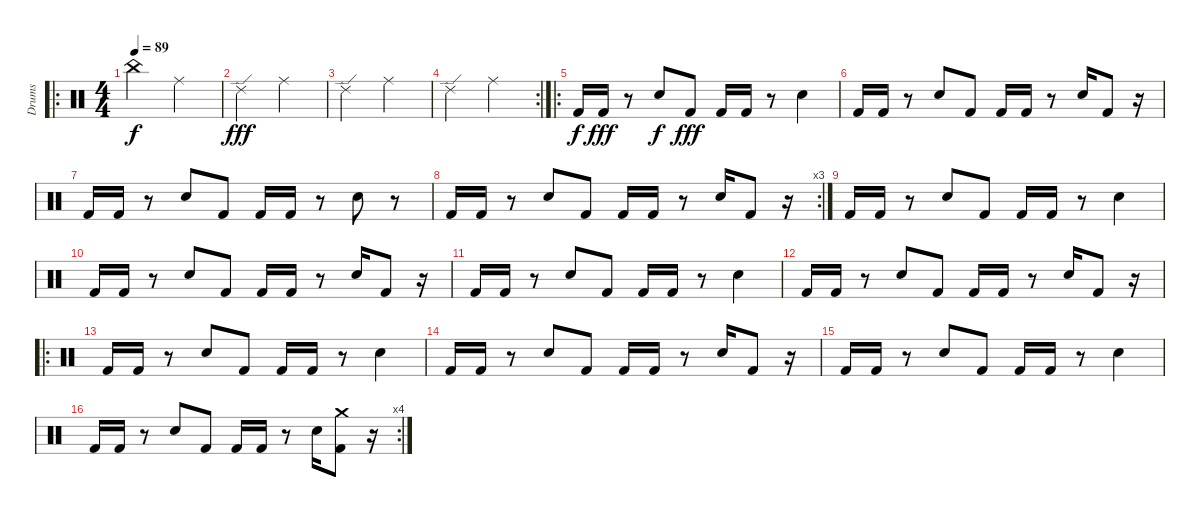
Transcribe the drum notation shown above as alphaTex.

\track ("Drums" "Drums") {instrument percussion}
\staff {score}
\articulation defaults
\ro
\ts (4 4)
\tempo 89
\clef neutral
\ks c "China (hit)".2{dy f} "Ride (middle)".2
|
"Ride (edge) 2".2{dy fff} "Ride (middle)".2 |
"Ride (edge) 2".2 "Ride (middle)".2 |
\rc 2 "Ride (edge) 2".2 "Ride (middle)".2
|
\ro "Kick (hit) 2".16{dy f} "Kick (hit) 2".16{dy fff}
r.8 "Electric Snare (hit)".8{dy f} "Kick (hit) 2".8{dy fff} "Kick (hit) 2".16 "Kick (hit) 2".16 r.8 "Electric Snare (hit)".4 |
"Kick (hit) 2".16 "Kick (hit) 2".16 r.8 "Electric Snare (hit)".8 "Kick (hit) 2".8 "Kick (hit) 2".16 "Kick (hit) 2".16 r.8 "Electric Snare (hit)".16 "Kick (hit) 2".8 r.16 |
"Kick (hit) 2".16 "Kick (hit) 2".16 r.8 "Electric Snare (hit)".8 "Kick (hit) 2".8 "Kick (hit) 2".16 "Kick (hit) 2".16 r.8 "Electric Snare (hit)".8 r.8 |
\rc 3 "Kick (hit) 2".16 "Kick (hit) 2".16
r.8 "Electric Snare (hit)".8 "Kick (hit) 2".8 "Kick (hit) 2".16 "Kick (hit) 2".16 r.8 "Electric Snare (hit)".16 "Kick (hit) 2".8 r.16 |
"Kick (hit) 2".16 "Kick (hit) 2".16 r.8 "Electric Snare (hit)".8 "Kick (hit) 2".8 "Kick (hit) 2".16 "Kick (hit) 2".16 r.8 "Electric Snare (hit)".4 |
"Kick (hit) 2".16 "Kick (hit) 2".16 r.8 "Electric Snare (hit)".8 "Kick (hit) 2".8 "Kick (hit) 2".16 "Kick (hit) 2".16 r.8 "Electric Snare (hit)".16 "Kick (hit) 2".8 r.16 |
"Kick (hit) 2".16 "Kick (hit) 2".16 r.8 "Electric Snare (hit)".8 "Kick (hit) 2".8 "Kick (hit) 2".16 "Kick (hit) 2".16 r.8 "Electric Snare (hit)".4 |
"Kick (hit) 2".16 "Kick (hit) 2".16 r.8 "Electric Snare (hit)".8 "Kick (hit) 2".8 "Kick (hit) 2".16 "Kick (hit) 2".16 r.8 "Electric Snare (hit)".16 "Kick (hit) 2".8 r.16 |
\ro "Kick (hit) 2".16 "Kick (hit) 2".16
r.8 "Electric Snare (hit)".8 "Kick (hit) 2".8 "Kick (hit) 2".16 "Kick (hit) 2".16 r.8 "Electric Snare (hit)".4 |
"Kick (hit) 2".16 "Kick (hit) 2".16 r.8 "Electric Snare (hit)".8 "Kick (hit) 2".8 "Kick (hit) 2".16 "Kick (hit) 2".16 r.8 "Electric Snare (hit)".16 "Kick (hit) 2".8 r.16 |
"Kick (hit) 2".16 "Kick (hit) 2".16 r.8 "Electric Snare (hit)".8 "Kick (hit) 2".8 "Kick (hit) 2".16 "Kick (hit) 2".16 r.8 "Electric Snare (hit)".4 |
\rc 4 "Kick (hit) 2".16 "Kick (hit) 2".16
r.8 "Electric Snare (hit)".8 "Kick (hit) 2".8 "Kick (hit) 2".16 "Kick (hit) 2".16 r.8 "Electric Snare (hit)".16 ("Crash medium (hit)" "Kick (hit) 2").8 r.16
